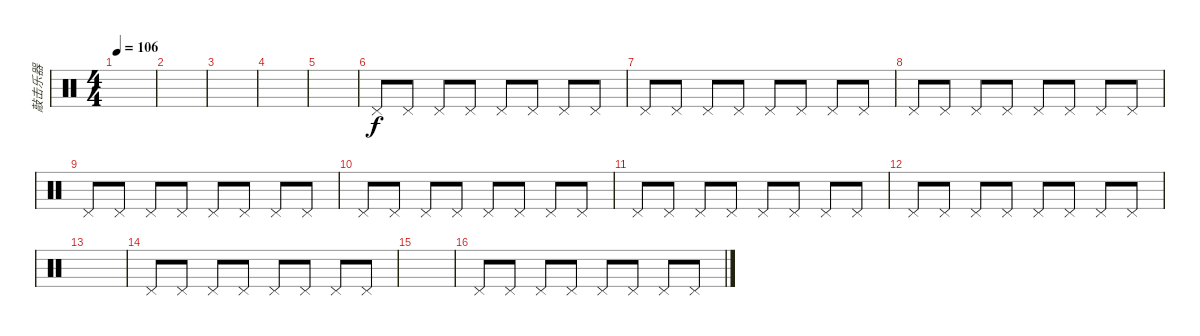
\track ("敲击乐器" "敲击乐器") {instrument percussion}
\staff {score}
\articulation defaults
\ts (4 4)
\tempo 106
\clef neutral
\ks c
|
|
|
|
|
"Pedal Hi-Hat (hit)".8 "Pedal Hi-Hat (hit)".8 "Pedal Hi-Hat (hit)".8 "Pedal Hi-Hat (hit)".8 "Pedal Hi-Hat (hit)".8 "Pedal Hi-Hat (hit)".8 "Pedal Hi-Hat (hit)".8 "Pedal Hi-Hat (hit)".8 |
"Pedal Hi-Hat (hit)".8 "Pedal Hi-Hat (hit)".8 "Pedal Hi-Hat (hit)".8 "Pedal Hi-Hat (hit)".8 "Pedal Hi-Hat (hit)".8 "Pedal Hi-Hat (hit)".8 "Pedal Hi-Hat (hit)".8 "Pedal Hi-Hat (hit)".8 |
"Pedal Hi-Hat (hit)".8 "Pedal Hi-Hat (hit)".8 "Pedal Hi-Hat (hit)".8 "Pedal Hi-Hat (hit)".8 "Pedal Hi-Hat (hit)".8 "Pedal Hi-Hat (hit)".8 "Pedal Hi-Hat (hit)".8 "Pedal Hi-Hat (hit)".8 |
"Pedal Hi-Hat (hit)".8 "Pedal Hi-Hat (hit)".8 "Pedal Hi-Hat (hit)".8 "Pedal Hi-Hat (hit)".8 "Pedal Hi-Hat (hit)".8 "Pedal Hi-Hat (hit)".8 "Pedal Hi-Hat (hit)".8 "Pedal Hi-Hat (hit)".8 |
"Pedal Hi-Hat (hit)".8 "Pedal Hi-Hat (hit)".8 "Pedal Hi-Hat (hit)".8 "Pedal Hi-Hat (hit)".8 "Pedal Hi-Hat (hit)".8 "Pedal Hi-Hat (hit)".8 "Pedal Hi-Hat (hit)".8 "Pedal Hi-Hat (hit)".8 |
"Pedal Hi-Hat (hit)".8 "Pedal Hi-Hat (hit)".8 "Pedal Hi-Hat (hit)".8 "Pedal Hi-Hat (hit)".8 "Pedal Hi-Hat (hit)".8 "Pedal Hi-Hat (hit)".8 "Pedal Hi-Hat (hit)".8 "Pedal Hi-Hat (hit)".8 |
"Pedal Hi-Hat (hit)".8 "Pedal Hi-Hat (hit)".8 "Pedal Hi-Hat (hit)".8 "Pedal Hi-Hat (hit)".8 "Pedal Hi-Hat (hit)".8 "Pedal Hi-Hat (hit)".8 "Pedal Hi-Hat (hit)".8 "Pedal Hi-Hat (hit)".8 |
|
"Pedal Hi-Hat (hit)".8 "Pedal Hi-Hat (hit)".8 "Pedal Hi-Hat (hit)".8 "Pedal Hi-Hat (hit)".8 "Pedal Hi-Hat (hit)".8 "Pedal Hi-Hat (hit)".8 "Pedal Hi-Hat (hit)".8 "Pedal Hi-Hat (hit)".8 |
|
"Pedal Hi-Hat (hit)".8 "Pedal Hi-Hat (hit)".8 "Pedal Hi-Hat (hit)".8 "Pedal Hi-Hat (hit)".8 "Pedal Hi-Hat (hit)".8 "Pedal Hi-Hat (hit)".8 "Pedal Hi-Hat (hit)".8 "Pedal Hi-Hat (hit)".8
